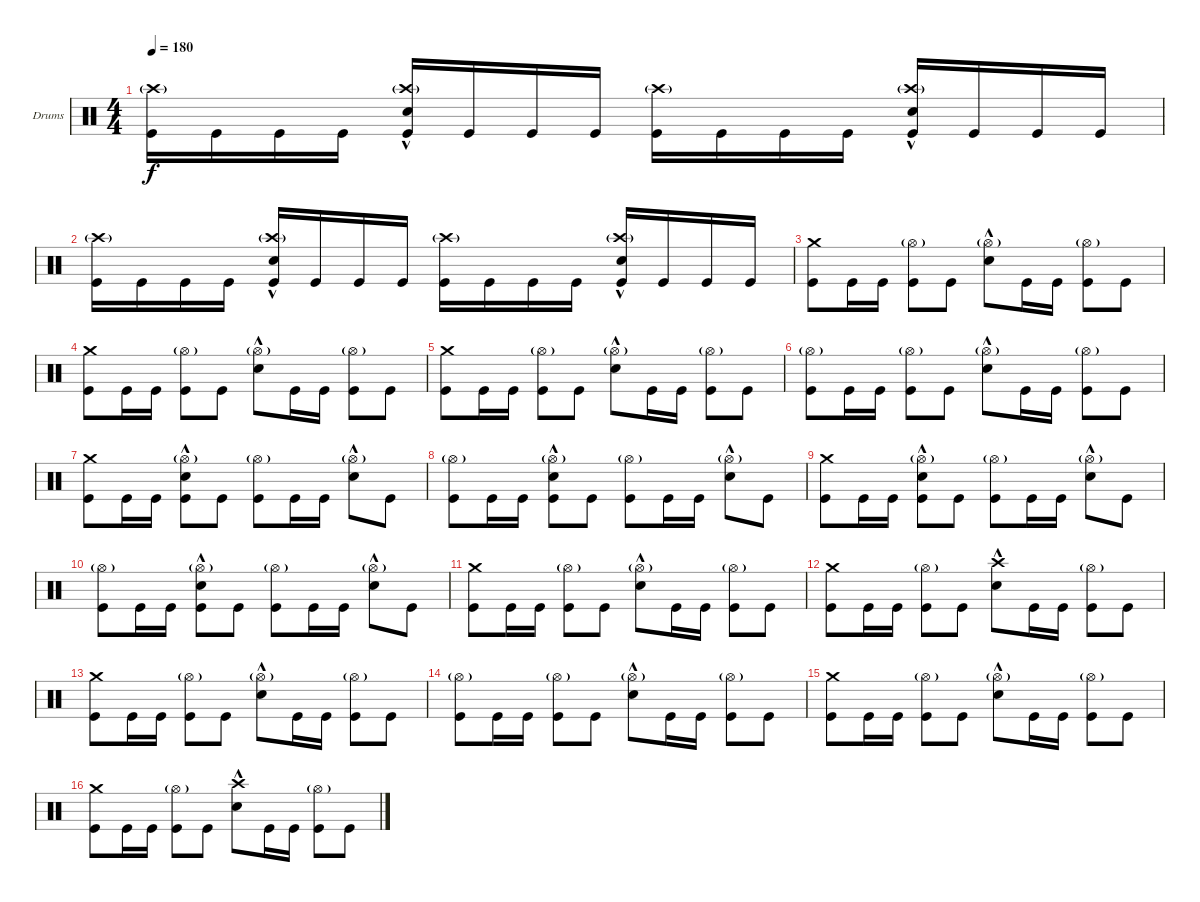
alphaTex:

\bracketExtendMode groupsimilarinstruments
\firstSystemTrackNameOrientation horizontal
\otherSystemsTrackNameOrientation horizontal
\track ("Drumkit" "Drums") {instrument percussion}
\staff {score}
\articulation defaults
\ts (4 4)
\tempo 180
\clef neutral
\scale
0.333333
\ks c
("Kick (hit)" "Crash high (hit)"{g}).16{dy f} "Kick (hit)".16 "Kick (hit)".16 "Kick (hit)".16 ("Kick (hit)" "Snare (hit) 2"{hac} "Crash high (hit)"{g}).16 "Kick (hit)".16 "Kick (hit)".16 "Kick (hit)".16 ("Kick (hit)" "Crash high (hit)"{g}).16 "Kick (hit)".16 "Kick (hit)".16 "Kick (hit)".16 ("Kick (hit)" "Snare (hit) 2"{hac} "Crash high (hit)"{g}).16 "Kick (hit)".16 "Kick (hit)".16 "Kick (hit)".16 |
\scale
0.333333 ("Kick (hit)" "Crash high (hit)"{g}).16 "Kick (hit)".16 "Kick (hit)".16 "Kick (hit)".16 ("Kick (hit)" "Snare (hit) 2"{hac} "Crash high (hit)"{g}).16 "Kick (hit)".16 "Kick (hit)".16 "Kick (hit)".16 ("Kick (hit)" "Crash high (hit)"{g}).16 "Kick (hit)".16 "Kick (hit)".16 "Kick (hit)".16 ("Kick (hit)" "Snare (hit) 2"{hac} "Crash high (hit)"{g}).16 "Kick (hit)".16 "Kick (hit)".16 "Kick (hit)".16 |
\scale
0.333333 ("Kick (hit)" "Crash medium (hit)").8 "Kick (hit)".16 "Kick (hit)".16 ("Kick (hit)" "Hi-Hat (open)"{g}).8 "Kick (hit)".8 ("Snare (hit) 2"{hac} "Hi-Hat (open)"{g}).8 "Kick (hit)".16 "Kick (hit)".16 ("Kick (hit)" "Hi-Hat (open)"{g}).8 "Kick (hit)".8 |
\scale
0.333333 ("Kick (hit)" "Crash medium (hit)").8 "Kick (hit)".16 "Kick (hit)".16 ("Kick (hit)" "Hi-Hat (open)"{g}).8 "Kick (hit)".8 ("Snare (hit) 2"{hac} "Hi-Hat (open)"{g}).8 "Kick (hit)".16 "Kick (hit)".16 ("Kick (hit)" "Hi-Hat (open)"{g}).8 "Kick (hit)".8 |
\scale
0.333333 ("Kick (hit)" "Crash medium (hit)").8 "Kick (hit)".16 "Kick (hit)".16 ("Kick (hit)" "Hi-Hat (open)"{g}).8 "Kick (hit)".8 ("Snare (hit) 2"{hac} "Hi-Hat (open)"{g}).8 "Kick (hit)".16 "Kick (hit)".16 ("Kick (hit)" "Hi-Hat (open)"{g}).8 "Kick (hit)".8 |
\scale
0.333333 ("Kick (hit)" "Hi-Hat (open)"{g}).8 "Kick (hit)".16 "Kick (hit)".16 ("Kick (hit)" "Hi-Hat (open)"{g}).8 "Kick (hit)".8 ("Snare (hit) 2"{hac} "Hi-Hat (open)"{g}).8 "Kick (hit)".16 "Kick (hit)".16 ("Kick (hit)" "Hi-Hat (open)"{g}).8 "Kick (hit)".8 |
\scale
0.333333 ("Kick (hit)" "Crash medium (hit)").8 "Kick (hit)".16 "Kick (hit)".16 ("Kick (hit)" "Hi-Hat (open)"{g} "Snare (hit) 2"{hac}).8 "Kick (hit)".8 ("Hi-Hat (open)"{g} "Kick (hit)").8 "Kick (hit)".16 "Kick (hit)".16 ("Hi-Hat (open)"{g} "Snare (hit) 2"{hac}).8 "Kick (hit)".8 |
\scale
0.333333 ("Kick (hit)" "Hi-Hat (open)"{g}).8 "Kick (hit)".16 "Kick (hit)".16 ("Kick (hit)" "Hi-Hat (open)"{g} "Snare (hit) 2"{hac}).8 "Kick (hit)".8 ("Hi-Hat (open)"{g} "Kick (hit)").8 "Kick (hit)".16 "Kick (hit)".16 ("Hi-Hat (open)"{g} "Snare (hit) 2"{hac}).8 "Kick (hit)".8 |
\scale
0.333333 ("Kick (hit)" "Crash medium (hit)").8 "Kick (hit)".16 "Kick (hit)".16 ("Kick (hit)" "Hi-Hat (open)"{g} "Snare (hit) 2"{hac}).8 "Kick (hit)".8 ("Hi-Hat (open)"{g} "Kick (hit)").8 "Kick (hit)".16 "Kick (hit)".16 ("Hi-Hat (open)"{g} "Snare (hit) 2"{hac}).8 "Kick (hit)".8 |
\scale
0.333333 ("Kick (hit)" "Hi-Hat (open)"{g}).8 "Kick (hit)".16 "Kick (hit)".16 ("Kick (hit)" "Hi-Hat (open)"{g} "Snare (hit) 2"{hac}).8 "Kick (hit)".8 ("Hi-Hat (open)"{g} "Kick (hit)").8 "Kick (hit)".16 "Kick (hit)".16 ("Hi-Hat (open)"{g} "Snare (hit) 2"{hac}).8 "Kick (hit)".8 |
\scale
0.333333 ("Kick (hit)" "Crash medium (hit)").8 "Kick (hit)".16 "Kick (hit)".16 ("Kick (hit)" "Hi-Hat (open)"{g}).8 "Kick (hit)".8 ("Hi-Hat (open)"{g} "Snare (hit) 2"{hac}).8 "Kick (hit)".16 "Kick (hit)".16 ("Hi-Hat (open)"{g} "Kick (hit)").8 "Kick (hit)".8 |
\scale
0.333333 ("Kick (hit)" "Crash medium (hit)").8 "Kick (hit)".16 "Kick (hit)".16 ("Kick (hit)" "Hi-Hat (open)"{g}).8 "Kick (hit)".8 ("Snare (hit) 2"{hac} "Crash high (hit)").8 "Kick (hit)".16 "Kick (hit)".16 ("Hi-Hat (open)"{g} "Kick (hit)").8 "Kick (hit)".8 |
\scale
0.333333 ("Kick (hit)" "Crash medium (hit)").8 "Kick (hit)".16 "Kick (hit)".16 ("Kick (hit)" "Hi-Hat (open)"{g}).8 "Kick (hit)".8 ("Hi-Hat (open)"{g} "Snare (hit) 2"{hac}).8 "Kick (hit)".16 "Kick (hit)".16 ("Hi-Hat (open)"{g} "Kick (hit)").8 "Kick (hit)".8 |
\scale
0.333333 ("Kick (hit)" "Hi-Hat (open)"{g}).8 "Kick (hit)".16 "Kick (hit)".16 ("Kick (hit)" "Hi-Hat (open)"{g}).8 "Kick (hit)".8 ("Hi-Hat (open)"{g} "Snare (hit) 2"{hac}).8 "Kick (hit)".16 "Kick (hit)".16 ("Hi-Hat (open)"{g} "Kick (hit)").8 "Kick (hit)".8 |
\scale
0.333333 ("Kick (hit)" "Crash medium (hit)").8 "Kick (hit)".16 "Kick (hit)".16 ("Kick (hit)" "Hi-Hat (open)"{g}).8 "Kick (hit)".8 ("Hi-Hat (open)"{g} "Snare (hit) 2"{hac}).8 "Kick (hit)".16 "Kick (hit)".16 ("Hi-Hat (open)"{g} "Kick (hit)").8 "Kick (hit)".8 |
\scale
0.333333 ("Kick (hit)" "Crash medium (hit)").8 "Kick (hit)".16 "Kick (hit)".16 ("Kick (hit)" "Hi-Hat (open)"{g}).8 "Kick (hit)".8 ("Snare (hit) 2"{hac} "Crash high (hit)").8 "Kick (hit)".16 "Kick (hit)".16 ("Hi-Hat (open)"{g} "Kick (hit)").8 "Kick (hit)".8
